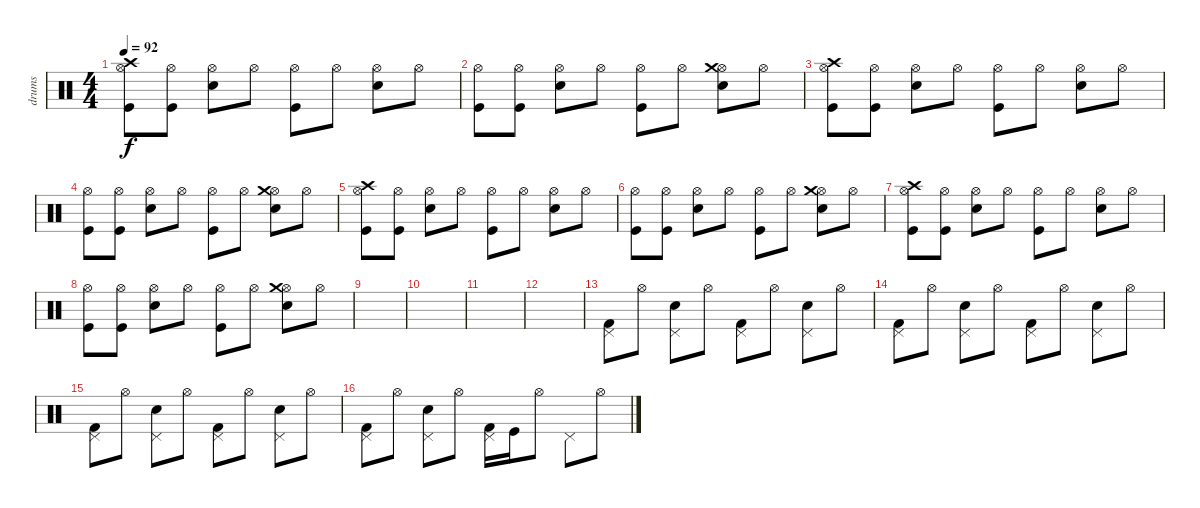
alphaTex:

\track ("drums" "drums") {instrument percussion}
\staff {score}
\articulation defaults
\ts (4 4)
\tempo 92
\clef neutral
\ks c
("Kick (hit)" "Hi-Hat (open)" "Crash high (hit)").8{dy f} ("Kick (hit)" "Hi-Hat (open)").8 ("Hi-Hat (open)" "Electric Snare (hit)").8 "Hi-Hat (open)".8 ("Kick (hit)" "Hi-Hat (open)").8 "Hi-Hat (open)".8 ("Hi-Hat (open)" "Electric Snare (hit)").8 "Hi-Hat (open)".8 |
("Kick (hit)" "Hi-Hat (open)").8 ("Kick (hit)" "Hi-Hat (open)").8 ("Hi-Hat (open)" "Electric Snare (hit)").8 "Hi-Hat (open)".8 ("Kick (hit)" "Hi-Hat (open)").8 "Hi-Hat (open)".8 ("Hi-Hat (open)" "Electric Snare (hit)" "Crash medium (hit)").8 "Hi-Hat (open)".8 |
("Kick (hit)" "Hi-Hat (open)" "Crash high (hit)").8 ("Kick (hit)" "Hi-Hat (open)").8 ("Hi-Hat (open)" "Electric Snare (hit)").8 "Hi-Hat (open)".8 ("Kick (hit)" "Hi-Hat (open)").8 "Hi-Hat (open)".8 ("Hi-Hat (open)" "Electric Snare (hit)").8 "Hi-Hat (open)".8 |
("Kick (hit)" "Hi-Hat (open)").8 ("Kick (hit)" "Hi-Hat (open)").8 ("Hi-Hat (open)" "Electric Snare (hit)").8 "Hi-Hat (open)".8 ("Kick (hit)" "Hi-Hat (open)").8 "Hi-Hat (open)".8 ("Hi-Hat (open)" "Electric Snare (hit)" "Crash medium (hit)").8 "Hi-Hat (open)".8 |
("Kick (hit)" "Hi-Hat (open)" "Crash high (hit)").8 ("Kick (hit)" "Hi-Hat (open)").8 ("Hi-Hat (open)" "Electric Snare (hit)").8 "Hi-Hat (open)".8 ("Kick (hit)" "Hi-Hat (open)").8 "Hi-Hat (open)".8 ("Hi-Hat (open)" "Electric Snare (hit)").8 "Hi-Hat (open)".8 |
("Kick (hit)" "Hi-Hat (open)").8 ("Kick (hit)" "Hi-Hat (open)").8 ("Hi-Hat (open)" "Electric Snare (hit)").8 "Hi-Hat (open)".8 ("Kick (hit)" "Hi-Hat (open)").8 "Hi-Hat (open)".8 ("Hi-Hat (open)" "Electric Snare (hit)" "Crash medium (hit)").8 "Hi-Hat (open)".8 |
("Kick (hit)" "Hi-Hat (open)" "Crash high (hit)").8 ("Kick (hit)" "Hi-Hat (open)").8 ("Hi-Hat (open)" "Electric Snare (hit)").8 "Hi-Hat (open)".8 ("Kick (hit)" "Hi-Hat (open)").8 "Hi-Hat (open)".8 ("Hi-Hat (open)" "Electric Snare (hit)").8 "Hi-Hat (open)".8 |
("Kick (hit)" "Hi-Hat (open)").8 ("Kick (hit)" "Hi-Hat (open)").8 ("Hi-Hat (open)" "Electric Snare (hit)").8 "Hi-Hat (open)".8 ("Kick (hit)" "Hi-Hat (open)").8 "Hi-Hat (open)".8 ("Hi-Hat (open)" "Electric Snare (hit)" "Crash medium (hit)").8 "Hi-Hat (open)".8 |
|
|
|
|
("Kick (hit) 2" "Pedal Hi-Hat (hit)").8 "Hi-Hat (open)".8 ("Pedal Hi-Hat (hit)" "Snare (hit) 2").8 "Hi-Hat (open)".8 ("Kick (hit) 2" "Pedal Hi-Hat (hit)").8 "Hi-Hat (open)".8 ("Pedal Hi-Hat (hit)" "Snare (hit) 2").8 "Hi-Hat (open)".8 |
("Kick (hit) 2" "Pedal Hi-Hat (hit)").8 "Hi-Hat (open)".8 ("Pedal Hi-Hat (hit)" "Snare (hit) 2").8 "Hi-Hat (open)".8 ("Kick (hit) 2" "Pedal Hi-Hat (hit)").8 "Hi-Hat (open)".8 ("Pedal Hi-Hat (hit)" "Snare (hit) 2").8 "Hi-Hat (open)".8 |
("Kick (hit) 2" "Pedal Hi-Hat (hit)").8 "Hi-Hat (open)".8 ("Pedal Hi-Hat (hit)" "Snare (hit) 2").8 "Hi-Hat (open)".8 ("Kick (hit) 2" "Pedal Hi-Hat (hit)").8 "Hi-Hat (open)".8 ("Pedal Hi-Hat (hit)" "Snare (hit) 2").8 "Hi-Hat (open)".8 |
("Kick (hit) 2" "Pedal Hi-Hat (hit)").8 "Hi-Hat (open)".8 ("Pedal Hi-Hat (hit)" "Snare (hit) 2").8 "Hi-Hat (open)".8 ("Kick (hit) 2" "Pedal Hi-Hat (hit)").16 "Kick (hit)".16 "Hi-Hat (open)".8 "Pedal Hi-Hat (hit)".8 "Hi-Hat (open)".8
